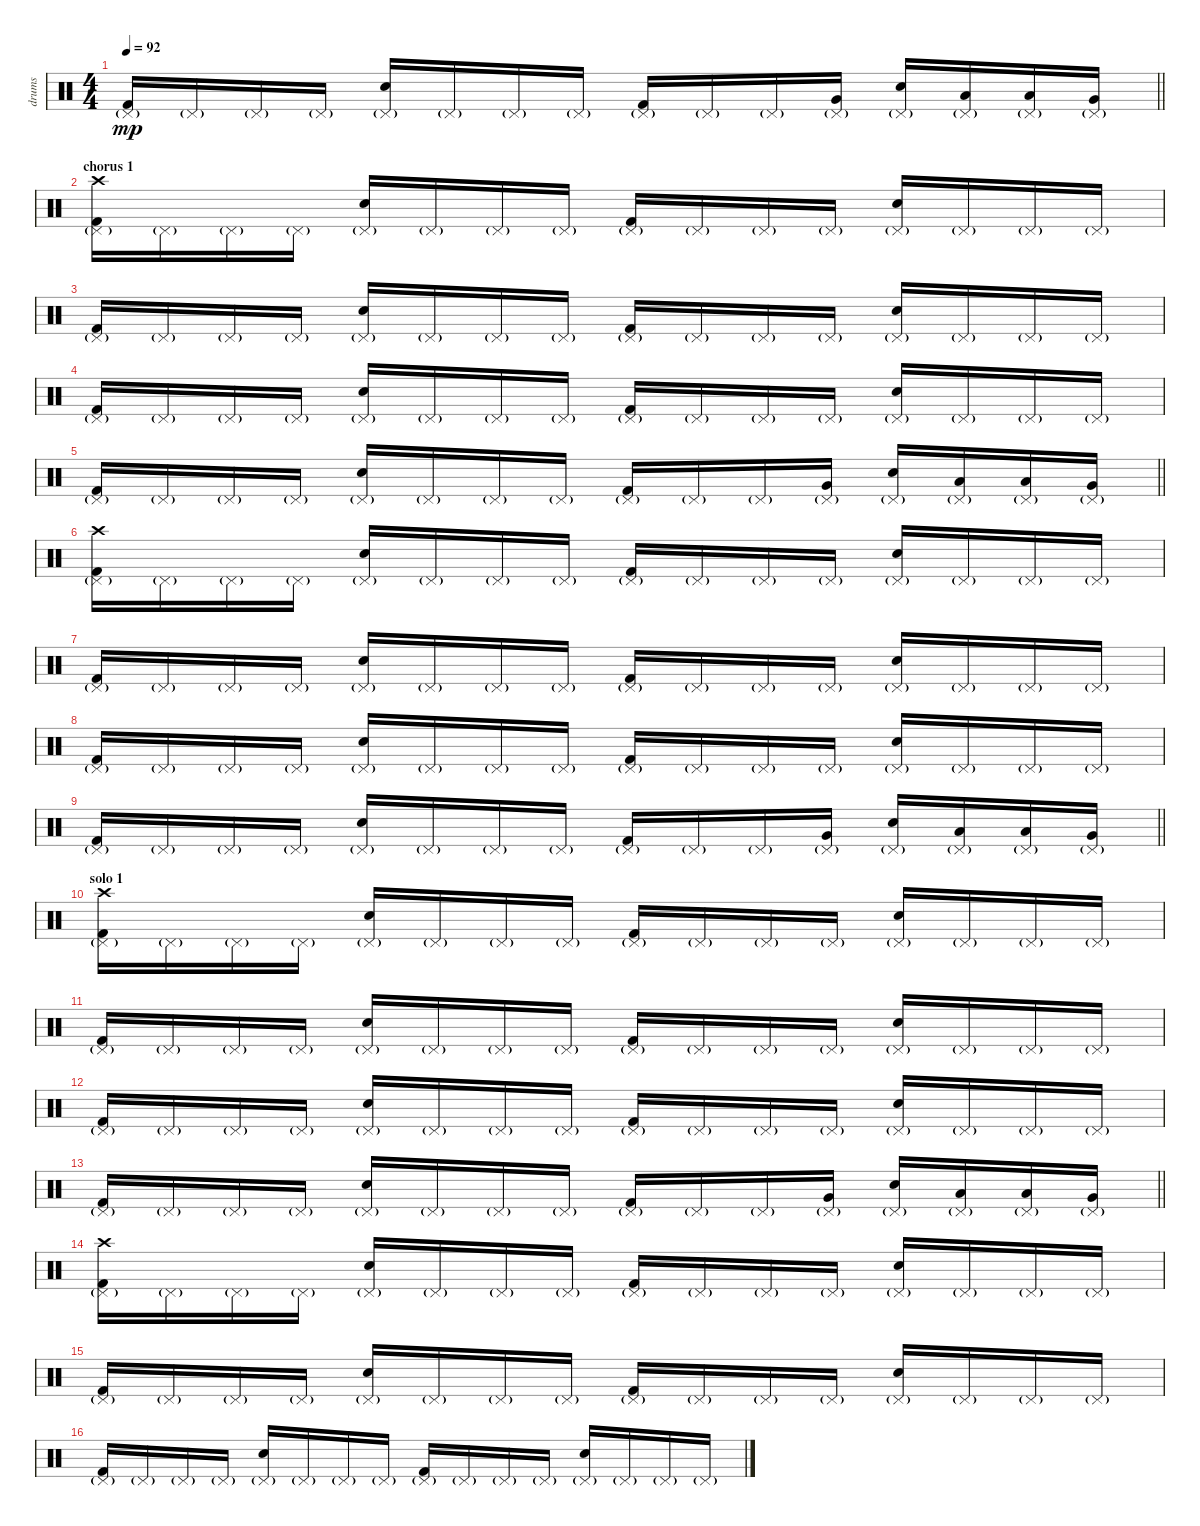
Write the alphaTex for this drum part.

\track ("drums" "drums") {instrument percussion}
\staff {score}
\articulation defaults
\ts (4 4)
\tempo 92
\clef neutral
\barLineRight lightlight
\ks c
("Kick (hit) 2" "Pedal Hi-Hat (hit)"{g}).16{dy mp} "Pedal Hi-Hat (hit)"{g}.16 "Pedal Hi-Hat (hit)"{g}.16 "Pedal Hi-Hat (hit)"{g}.16 ("Electric Snare (hit)" "Pedal Hi-Hat (hit)"{g}).16 "Pedal Hi-Hat (hit)"{g}.16 "Pedal Hi-Hat (hit)"{g}.16 "Pedal Hi-Hat (hit)"{g}.16 ("Kick (hit) 2" "Pedal Hi-Hat (hit)"{g}).16 "Pedal Hi-Hat (hit)"{g}.16 "Pedal Hi-Hat (hit)"{g}.16 ("Very Low Tom (hit)" "Pedal Hi-Hat (hit)"{g}).16 ("Electric Snare (hit)" "Pedal Hi-Hat (hit)"{g}).16 ("Low Floor Tom (hit)" "Pedal Hi-Hat (hit)"{g}).16 ("Low Floor Tom (hit)" "Pedal Hi-Hat (hit)"{g}).16 ("Very Low Tom (hit)" "Pedal Hi-Hat (hit)"{g}).16 |
\section ("" "chorus 1")
("Kick (hit) 2" "Pedal Hi-Hat (hit)"{g} "Crash high (hit)").16 "Pedal Hi-Hat (hit)"{g}.16 "Pedal Hi-Hat (hit)"{g}.16 "Pedal Hi-Hat (hit)"{g}.16 ("Electric Snare (hit)" "Pedal Hi-Hat (hit)"{g}).16 "Pedal Hi-Hat (hit)"{g}.16 "Pedal Hi-Hat (hit)"{g}.16 "Pedal Hi-Hat (hit)"{g}.16 ("Kick (hit) 2" "Pedal Hi-Hat (hit)"{g}).16 "Pedal Hi-Hat (hit)"{g}.16 "Pedal Hi-Hat (hit)"{g}.16 "Pedal Hi-Hat (hit)"{g}.16 ("Electric Snare (hit)" "Pedal Hi-Hat (hit)"{g}).16 "Pedal Hi-Hat (hit)"{g}.16 "Pedal Hi-Hat (hit)"{g}.16 "Pedal Hi-Hat (hit)"{g}.16 |
("Kick (hit) 2" "Pedal Hi-Hat (hit)"{g}).16 "Pedal Hi-Hat (hit)"{g}.16 "Pedal Hi-Hat (hit)"{g}.16 "Pedal Hi-Hat (hit)"{g}.16 ("Electric Snare (hit)" "Pedal Hi-Hat (hit)"{g}).16 "Pedal Hi-Hat (hit)"{g}.16 "Pedal Hi-Hat (hit)"{g}.16 "Pedal Hi-Hat (hit)"{g}.16 ("Kick (hit) 2" "Pedal Hi-Hat (hit)"{g}).16 "Pedal Hi-Hat (hit)"{g}.16 "Pedal Hi-Hat (hit)"{g}.16 "Pedal Hi-Hat (hit)"{g}.16 ("Electric Snare (hit)" "Pedal Hi-Hat (hit)"{g}).16 "Pedal Hi-Hat (hit)"{g}.16 "Pedal Hi-Hat (hit)"{g}.16 "Pedal Hi-Hat (hit)"{g}.16 |
("Kick (hit) 2" "Pedal Hi-Hat (hit)"{g}).16 "Pedal Hi-Hat (hit)"{g}.16 "Pedal Hi-Hat (hit)"{g}.16 "Pedal Hi-Hat (hit)"{g}.16 ("Electric Snare (hit)" "Pedal Hi-Hat (hit)"{g}).16 "Pedal Hi-Hat (hit)"{g}.16 "Pedal Hi-Hat (hit)"{g}.16 "Pedal Hi-Hat (hit)"{g}.16 ("Kick (hit) 2" "Pedal Hi-Hat (hit)"{g}).16 "Pedal Hi-Hat (hit)"{g}.16 "Pedal Hi-Hat (hit)"{g}.16 "Pedal Hi-Hat (hit)"{g}.16 ("Electric Snare (hit)" "Pedal Hi-Hat (hit)"{g}).16 "Pedal Hi-Hat (hit)"{g}.16 "Pedal Hi-Hat (hit)"{g}.16 "Pedal Hi-Hat (hit)"{g}.16 |
\barLineRight lightlight
("Kick (hit) 2" "Pedal Hi-Hat (hit)"{g}).16 "Pedal Hi-Hat (hit)"{g}.16 "Pedal Hi-Hat (hit)"{g}.16 "Pedal Hi-Hat (hit)"{g}.16 ("Electric Snare (hit)" "Pedal Hi-Hat (hit)"{g}).16 "Pedal Hi-Hat (hit)"{g}.16 "Pedal Hi-Hat (hit)"{g}.16 "Pedal Hi-Hat (hit)"{g}.16 ("Kick (hit) 2" "Pedal Hi-Hat (hit)"{g}).16 "Pedal Hi-Hat (hit)"{g}.16 "Pedal Hi-Hat (hit)"{g}.16 ("Very Low Tom (hit)" "Pedal Hi-Hat (hit)"{g}).16 ("Electric Snare (hit)" "Pedal Hi-Hat (hit)"{g}).16 ("Low Floor Tom (hit)" "Pedal Hi-Hat (hit)"{g}).16 ("Low Floor Tom (hit)" "Pedal Hi-Hat (hit)"{g}).16 ("Very Low Tom (hit)" "Pedal Hi-Hat (hit)"{g}).16 |
("Kick (hit) 2" "Pedal Hi-Hat (hit)"{g} "Crash high (hit)").16 "Pedal Hi-Hat (hit)"{g}.16 "Pedal Hi-Hat (hit)"{g}.16 "Pedal Hi-Hat (hit)"{g}.16 ("Electric Snare (hit)" "Pedal Hi-Hat (hit)"{g}).16 "Pedal Hi-Hat (hit)"{g}.16 "Pedal Hi-Hat (hit)"{g}.16 "Pedal Hi-Hat (hit)"{g}.16 ("Kick (hit) 2" "Pedal Hi-Hat (hit)"{g}).16 "Pedal Hi-Hat (hit)"{g}.16 "Pedal Hi-Hat (hit)"{g}.16 "Pedal Hi-Hat (hit)"{g}.16 ("Electric Snare (hit)" "Pedal Hi-Hat (hit)"{g}).16 "Pedal Hi-Hat (hit)"{g}.16 "Pedal Hi-Hat (hit)"{g}.16 "Pedal Hi-Hat (hit)"{g}.16 |
("Kick (hit) 2" "Pedal Hi-Hat (hit)"{g}).16 "Pedal Hi-Hat (hit)"{g}.16 "Pedal Hi-Hat (hit)"{g}.16 "Pedal Hi-Hat (hit)"{g}.16 ("Electric Snare (hit)" "Pedal Hi-Hat (hit)"{g}).16 "Pedal Hi-Hat (hit)"{g}.16 "Pedal Hi-Hat (hit)"{g}.16 "Pedal Hi-Hat (hit)"{g}.16 ("Kick (hit) 2" "Pedal Hi-Hat (hit)"{g}).16 "Pedal Hi-Hat (hit)"{g}.16 "Pedal Hi-Hat (hit)"{g}.16 "Pedal Hi-Hat (hit)"{g}.16 ("Electric Snare (hit)" "Pedal Hi-Hat (hit)"{g}).16 "Pedal Hi-Hat (hit)"{g}.16 "Pedal Hi-Hat (hit)"{g}.16 "Pedal Hi-Hat (hit)"{g}.16 |
("Kick (hit) 2" "Pedal Hi-Hat (hit)"{g}).16 "Pedal Hi-Hat (hit)"{g}.16 "Pedal Hi-Hat (hit)"{g}.16 "Pedal Hi-Hat (hit)"{g}.16 ("Electric Snare (hit)" "Pedal Hi-Hat (hit)"{g}).16 "Pedal Hi-Hat (hit)"{g}.16 "Pedal Hi-Hat (hit)"{g}.16 "Pedal Hi-Hat (hit)"{g}.16 ("Kick (hit) 2" "Pedal Hi-Hat (hit)"{g}).16 "Pedal Hi-Hat (hit)"{g}.16 "Pedal Hi-Hat (hit)"{g}.16 "Pedal Hi-Hat (hit)"{g}.16 ("Electric Snare (hit)" "Pedal Hi-Hat (hit)"{g}).16 "Pedal Hi-Hat (hit)"{g}.16 "Pedal Hi-Hat (hit)"{g}.16 "Pedal Hi-Hat (hit)"{g}.16 |
\barLineRight lightlight
("Kick (hit) 2" "Pedal Hi-Hat (hit)"{g}).16 "Pedal Hi-Hat (hit)"{g}.16 "Pedal Hi-Hat (hit)"{g}.16 "Pedal Hi-Hat (hit)"{g}.16 ("Electric Snare (hit)" "Pedal Hi-Hat (hit)"{g}).16 "Pedal Hi-Hat (hit)"{g}.16 "Pedal Hi-Hat (hit)"{g}.16 "Pedal Hi-Hat (hit)"{g}.16 ("Kick (hit) 2" "Pedal Hi-Hat (hit)"{g}).16 "Pedal Hi-Hat (hit)"{g}.16 "Pedal Hi-Hat (hit)"{g}.16 ("Very Low Tom (hit)" "Pedal Hi-Hat (hit)"{g}).16 ("Electric Snare (hit)" "Pedal Hi-Hat (hit)"{g}).16 ("Low Floor Tom (hit)" "Pedal Hi-Hat (hit)"{g}).16 ("Low Floor Tom (hit)" "Pedal Hi-Hat (hit)"{g}).16 ("Very Low Tom (hit)" "Pedal Hi-Hat (hit)"{g}).16 |
\section ("" "solo 1 ")
("Kick (hit) 2" "Pedal Hi-Hat (hit)"{g} "Crash high (hit)").16 "Pedal Hi-Hat (hit)"{g}.16 "Pedal Hi-Hat (hit)"{g}.16 "Pedal Hi-Hat (hit)"{g}.16 ("Electric Snare (hit)" "Pedal Hi-Hat (hit)"{g}).16 "Pedal Hi-Hat (hit)"{g}.16 "Pedal Hi-Hat (hit)"{g}.16 "Pedal Hi-Hat (hit)"{g}.16 ("Kick (hit) 2" "Pedal Hi-Hat (hit)"{g}).16 "Pedal Hi-Hat (hit)"{g}.16 "Pedal Hi-Hat (hit)"{g}.16 "Pedal Hi-Hat (hit)"{g}.16 ("Electric Snare (hit)" "Pedal Hi-Hat (hit)"{g}).16 "Pedal Hi-Hat (hit)"{g}.16 "Pedal Hi-Hat (hit)"{g}.16 "Pedal Hi-Hat (hit)"{g}.16 |
("Kick (hit) 2" "Pedal Hi-Hat (hit)"{g}).16 "Pedal Hi-Hat (hit)"{g}.16 "Pedal Hi-Hat (hit)"{g}.16 "Pedal Hi-Hat (hit)"{g}.16 ("Electric Snare (hit)" "Pedal Hi-Hat (hit)"{g}).16 "Pedal Hi-Hat (hit)"{g}.16 "Pedal Hi-Hat (hit)"{g}.16 "Pedal Hi-Hat (hit)"{g}.16 ("Kick (hit) 2" "Pedal Hi-Hat (hit)"{g}).16 "Pedal Hi-Hat (hit)"{g}.16 "Pedal Hi-Hat (hit)"{g}.16 "Pedal Hi-Hat (hit)"{g}.16 ("Electric Snare (hit)" "Pedal Hi-Hat (hit)"{g}).16 "Pedal Hi-Hat (hit)"{g}.16 "Pedal Hi-Hat (hit)"{g}.16 "Pedal Hi-Hat (hit)"{g}.16 |
("Kick (hit) 2" "Pedal Hi-Hat (hit)"{g}).16 "Pedal Hi-Hat (hit)"{g}.16 "Pedal Hi-Hat (hit)"{g}.16 "Pedal Hi-Hat (hit)"{g}.16 ("Electric Snare (hit)" "Pedal Hi-Hat (hit)"{g}).16 "Pedal Hi-Hat (hit)"{g}.16 "Pedal Hi-Hat (hit)"{g}.16 "Pedal Hi-Hat (hit)"{g}.16 ("Kick (hit) 2" "Pedal Hi-Hat (hit)"{g}).16 "Pedal Hi-Hat (hit)"{g}.16 "Pedal Hi-Hat (hit)"{g}.16 "Pedal Hi-Hat (hit)"{g}.16 ("Electric Snare (hit)" "Pedal Hi-Hat (hit)"{g}).16 "Pedal Hi-Hat (hit)"{g}.16 "Pedal Hi-Hat (hit)"{g}.16 "Pedal Hi-Hat (hit)"{g}.16 |
\barLineRight lightlight
("Kick (hit) 2" "Pedal Hi-Hat (hit)"{g}).16 "Pedal Hi-Hat (hit)"{g}.16 "Pedal Hi-Hat (hit)"{g}.16 "Pedal Hi-Hat (hit)"{g}.16 ("Electric Snare (hit)" "Pedal Hi-Hat (hit)"{g}).16 "Pedal Hi-Hat (hit)"{g}.16 "Pedal Hi-Hat (hit)"{g}.16 "Pedal Hi-Hat (hit)"{g}.16 ("Kick (hit) 2" "Pedal Hi-Hat (hit)"{g}).16 "Pedal Hi-Hat (hit)"{g}.16 "Pedal Hi-Hat (hit)"{g}.16 ("Very Low Tom (hit)" "Pedal Hi-Hat (hit)"{g}).16 ("Electric Snare (hit)" "Pedal Hi-Hat (hit)"{g}).16 ("Low Floor Tom (hit)" "Pedal Hi-Hat (hit)"{g}).16 ("Low Floor Tom (hit)" "Pedal Hi-Hat (hit)"{g}).16 ("Very Low Tom (hit)" "Pedal Hi-Hat (hit)"{g}).16 |
("Kick (hit) 2" "Pedal Hi-Hat (hit)"{g} "Crash high (hit)").16 "Pedal Hi-Hat (hit)"{g}.16 "Pedal Hi-Hat (hit)"{g}.16 "Pedal Hi-Hat (hit)"{g}.16 ("Electric Snare (hit)" "Pedal Hi-Hat (hit)"{g}).16 "Pedal Hi-Hat (hit)"{g}.16 "Pedal Hi-Hat (hit)"{g}.16 "Pedal Hi-Hat (hit)"{g}.16 ("Kick (hit) 2" "Pedal Hi-Hat (hit)"{g}).16 "Pedal Hi-Hat (hit)"{g}.16 "Pedal Hi-Hat (hit)"{g}.16 "Pedal Hi-Hat (hit)"{g}.16 ("Electric Snare (hit)" "Pedal Hi-Hat (hit)"{g}).16 "Pedal Hi-Hat (hit)"{g}.16 "Pedal Hi-Hat (hit)"{g}.16 "Pedal Hi-Hat (hit)"{g}.16 |
("Kick (hit) 2" "Pedal Hi-Hat (hit)"{g}).16 "Pedal Hi-Hat (hit)"{g}.16 "Pedal Hi-Hat (hit)"{g}.16 "Pedal Hi-Hat (hit)"{g}.16 ("Electric Snare (hit)" "Pedal Hi-Hat (hit)"{g}).16 "Pedal Hi-Hat (hit)"{g}.16 "Pedal Hi-Hat (hit)"{g}.16 "Pedal Hi-Hat (hit)"{g}.16 ("Kick (hit) 2" "Pedal Hi-Hat (hit)"{g}).16 "Pedal Hi-Hat (hit)"{g}.16 "Pedal Hi-Hat (hit)"{g}.16 "Pedal Hi-Hat (hit)"{g}.16 ("Electric Snare (hit)" "Pedal Hi-Hat (hit)"{g}).16 "Pedal Hi-Hat (hit)"{g}.16 "Pedal Hi-Hat (hit)"{g}.16 "Pedal Hi-Hat (hit)"{g}.16 |
("Kick (hit) 2" "Pedal Hi-Hat (hit)"{g}).16 "Pedal Hi-Hat (hit)"{g}.16 "Pedal Hi-Hat (hit)"{g}.16 "Pedal Hi-Hat (hit)"{g}.16 ("Electric Snare (hit)" "Pedal Hi-Hat (hit)"{g}).16 "Pedal Hi-Hat (hit)"{g}.16 "Pedal Hi-Hat (hit)"{g}.16 "Pedal Hi-Hat (hit)"{g}.16 ("Kick (hit) 2" "Pedal Hi-Hat (hit)"{g}).16 "Pedal Hi-Hat (hit)"{g}.16 "Pedal Hi-Hat (hit)"{g}.16 "Pedal Hi-Hat (hit)"{g}.16 ("Electric Snare (hit)" "Pedal Hi-Hat (hit)"{g}).16 "Pedal Hi-Hat (hit)"{g}.16 "Pedal Hi-Hat (hit)"{g}.16 "Pedal Hi-Hat (hit)"{g}.16
